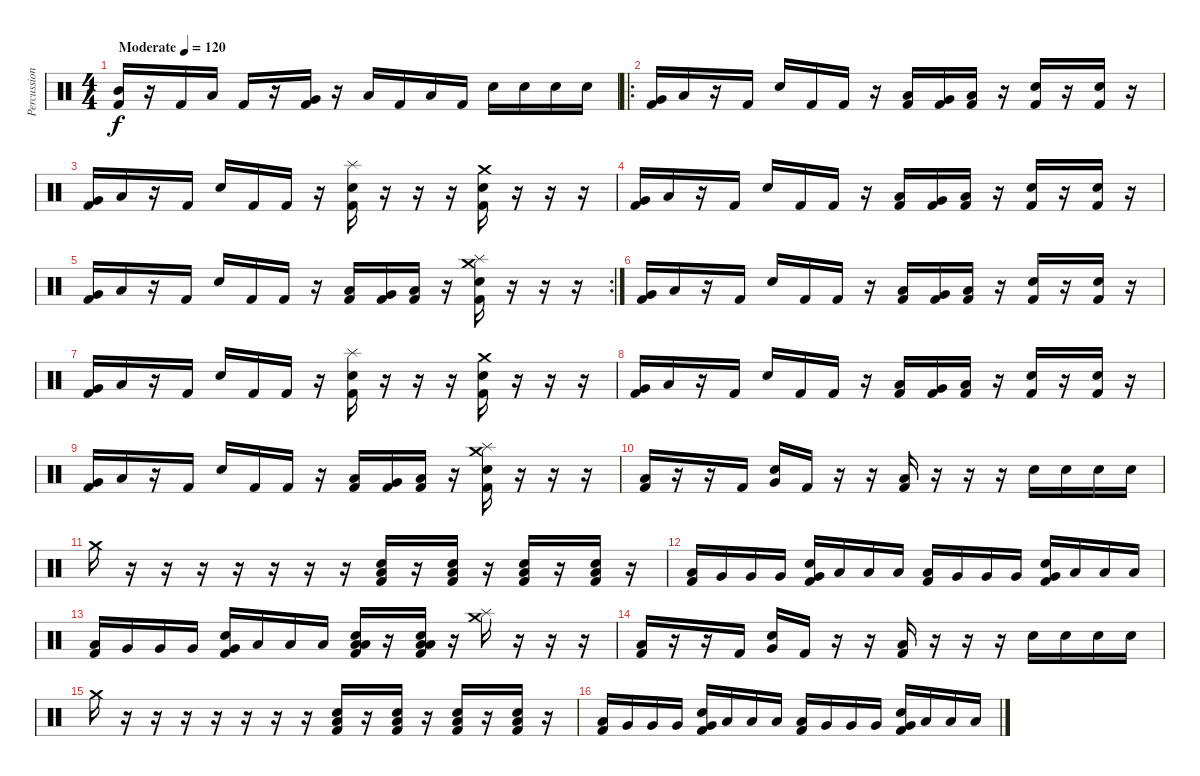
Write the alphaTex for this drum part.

\track ("Percussion" "Percussion") {instrument percussion}
\staff {score}
\articulation defaults
\ts (4 4)
\tempo (120 "Moderate")
\clef neutral
\ks c
("Mid Tom (hit)" "Kick (hit) 2").16{dy f} r.16 "Kick (hit) 2".16 "Low Tom (hit)".16 "Kick (hit) 2".16 r.16 ("Very Low Tom (hit)" "Kick (hit) 2").16 r.16 "Low Tom (hit)".16 "Kick (hit) 2".16 "Low Floor Tom (hit)".16 "Kick (hit) 2".16 "Snare (hit) 2".16 "Snare (hit) 2".16 "Snare (hit) 2".16 "Snare (hit) 2".16 |
\ro
("Very Low Tom (hit)" "Kick (hit) 2").16 "Low Floor Tom (hit)".16 r.16 "Kick (hit) 2".16 "Snare (hit) 2".16 "Kick (hit) 2".16 "Kick (hit) 2".16 r.16 ("Low Tom (hit)" "Kick (hit) 2").16 ("Very Low Tom (hit)" "Kick (hit) 2").16 ("Low Floor Tom (hit)" "Kick (hit) 2").16 r.16 ("Snare (hit) 2" "Kick (hit) 2").16 r.16 ("Snare (hit) 2" "Kick (hit) 2").16 r.16 |
("Very Low Tom (hit)" "Kick (hit) 2").16 "Low Floor Tom (hit)".16 r.16 "Kick (hit) 2".16 "Snare (hit) 2".16 "Kick (hit) 2".16 "Kick (hit) 2".16 r.16 ("Splash (hit)" "Snare (hit) 2" "Kick (hit) 2").16 r.16 r.16 r.16 ("Crash medium (hit)" "Snare (hit) 2" "Kick (hit) 2").16 r.16 r.16 r.16 |
("Very Low Tom (hit)" "Kick (hit) 2").16 "Low Floor Tom (hit)".16 r.16 "Kick (hit) 2".16 "Snare (hit) 2".16 "Kick (hit) 2".16 "Kick (hit) 2".16 r.16 ("Low Tom (hit)" "Kick (hit) 2").16 ("Very Low Tom (hit)" "Kick (hit) 2").16 ("Low Floor Tom (hit)" "Kick (hit) 2").16 r.16 ("Snare (hit) 2" "Kick (hit) 2").16 r.16 ("Snare (hit) 2" "Kick (hit) 2").16 r.16 |
\rc 2
("Very Low Tom (hit)" "Kick (hit) 2").16 "Low Floor Tom (hit)".16 r.16 "Kick (hit) 2".16 "Snare (hit) 2".16 "Kick (hit) 2".16 "Kick (hit) 2".16 r.16 ("Low Tom (hit)" "Kick (hit) 2").16 ("Very Low Tom (hit)" "Kick (hit) 2").16 ("Low Floor Tom (hit)" "Kick (hit) 2").16 r.16 ("Crash medium (hit)" "Splash (hit)" "Snare (hit) 2" "Kick (hit) 2").16 r.16 r.16 r.16 |
("Very Low Tom (hit)" "Kick (hit) 2").16 "Low Floor Tom (hit)".16 r.16 "Kick (hit) 2".16 "Snare (hit) 2".16 "Kick (hit) 2".16 "Kick (hit) 2".16 r.16 ("Low Tom (hit)" "Kick (hit) 2").16 ("Very Low Tom (hit)" "Kick (hit) 2").16 ("Low Floor Tom (hit)" "Kick (hit) 2").16 r.16 ("Snare (hit) 2" "Kick (hit) 2").16 r.16 ("Snare (hit) 2" "Kick (hit) 2").16 r.16 |
("Very Low Tom (hit)" "Kick (hit) 2").16 "Low Floor Tom (hit)".16 r.16 "Kick (hit) 2".16 "Snare (hit) 2".16 "Kick (hit) 2".16 "Kick (hit) 2".16 r.16 ("Splash (hit)" "Snare (hit) 2" "Kick (hit) 2").16 r.16 r.16 r.16 ("Crash medium (hit)" "Snare (hit) 2" "Kick (hit) 2").16 r.16 r.16 r.16 |
("Very Low Tom (hit)" "Kick (hit) 2").16 "Low Floor Tom (hit)".16 r.16 "Kick (hit) 2".16 "Snare (hit) 2".16 "Kick (hit) 2".16 "Kick (hit) 2".16 r.16 ("Low Tom (hit)" "Kick (hit) 2").16 ("Very Low Tom (hit)" "Kick (hit) 2").16 ("Low Floor Tom (hit)" "Kick (hit) 2").16 r.16 ("Snare (hit) 2" "Kick (hit) 2").16 r.16 ("Snare (hit) 2" "Kick (hit) 2").16 r.16 |
("Very Low Tom (hit)" "Kick (hit) 2").16 "Low Floor Tom (hit)".16 r.16 "Kick (hit) 2".16 "Snare (hit) 2".16 "Kick (hit) 2".16 "Kick (hit) 2".16 r.16 ("Low Tom (hit)" "Kick (hit) 2").16 ("Very Low Tom (hit)" "Kick (hit) 2").16 ("Low Floor Tom (hit)" "Kick (hit) 2").16 r.16 ("Crash medium (hit)" "Splash (hit)" "Snare (hit) 2" "Kick (hit) 2").16 r.16 r.16 r.16 |
("Low Tom (hit)" "Kick (hit) 2").16 r.16 r.16 "Kick (hit) 2".16 ("Snare (hit) 2" "Very Low Tom (hit)").16 "Kick (hit) 2".16 r.16 r.16 ("Low Tom (hit)" "Kick (hit) 2").16 r.16 r.16 r.16 "Snare (hit) 2".16 "Snare (hit) 2".16 "Snare (hit) 2".16 "Snare (hit) 2".16 |
"Crash medium (hit)".16 r.16 r.16 r.16 r.16 r.16 r.16 r.16 ("Snare (hit) 2" "Low Tom (hit)" "Kick (hit) 2").16 r.16 ("Snare (hit) 2" "Low Tom (hit)" "Kick (hit) 2").16 r.16 ("Snare (hit) 2" "Low Tom (hit)" "Kick (hit) 2").16 r.16 ("Snare (hit) 2" "Low Tom (hit)" "Kick (hit) 2").16 r.16 |
("Low Tom (hit)" "Kick (hit) 2").16 "Very Low Tom (hit)".16 "Very Low Tom (hit)".16 "Very Low Tom (hit)".16 ("Snare (hit) 2" "Very Low Tom (hit)" "Kick (hit) 2").16 "Low Floor Tom (hit)".16 "Low Floor Tom (hit)".16 "Low Floor Tom (hit)".16 ("Low Tom (hit)" "Kick (hit) 2").16 "Very Low Tom (hit)".16 "Very Low Tom (hit)".16 "Very Low Tom (hit)".16 ("Snare (hit) 2" "Very Low Tom (hit)" "Kick (hit) 2").16 "Low Floor Tom (hit)".16 "Low Floor Tom (hit)".16 "Low Floor Tom (hit)".16 |
("Low Tom (hit)" "Kick (hit) 2").16 "Very Low Tom (hit)".16 "Very Low Tom (hit)".16 "Very Low Tom (hit)".16 ("Snare (hit) 2" "Very Low Tom (hit)" "Kick (hit) 2").16 "Low Floor Tom (hit)".16 "Low Floor Tom (hit)".16 "Low Floor Tom (hit)".16 ("Low Tom (hit)" "Low Tom (hit)" "Snare (hit) 2" "Kick (hit) 2").16 r.16 ("Low Tom (hit)" "Low Tom (hit)" "Snare (hit) 2" "Kick (hit) 2").16 r.16 ("Splash (hit)" "Crash medium (hit)").16 r.16 r.16 r.16 |
("Low Tom (hit)" "Kick (hit) 2").16 r.16 r.16 "Kick (hit) 2".16 ("Snare (hit) 2" "Very Low Tom (hit)").16 "Kick (hit) 2".16 r.16 r.16 ("Low Tom (hit)" "Kick (hit) 2").16 r.16 r.16 r.16 "Snare (hit) 2".16 "Snare (hit) 2".16 "Snare (hit) 2".16 "Snare (hit) 2".16 |
"Crash medium (hit)".16 r.16 r.16 r.16 r.16 r.16 r.16 r.16 ("Snare (hit) 2" "Low Tom (hit)" "Kick (hit) 2").16 r.16 ("Snare (hit) 2" "Low Tom (hit)" "Kick (hit) 2").16 r.16 ("Snare (hit) 2" "Low Tom (hit)" "Kick (hit) 2").16 r.16 ("Snare (hit) 2" "Low Tom (hit)" "Kick (hit) 2").16 r.16 |
("Low Tom (hit)" "Kick (hit) 2").16 "Very Low Tom (hit)".16 "Very Low Tom (hit)".16 "Very Low Tom (hit)".16 ("Snare (hit) 2" "Very Low Tom (hit)" "Kick (hit) 2").16 "Low Floor Tom (hit)".16 "Low Floor Tom (hit)".16 "Low Floor Tom (hit)".16 ("Low Tom (hit)" "Kick (hit) 2").16 "Very Low Tom (hit)".16 "Very Low Tom (hit)".16 "Very Low Tom (hit)".16 ("Snare (hit) 2" "Very Low Tom (hit)" "Kick (hit) 2").16 "Low Floor Tom (hit)".16 "Low Floor Tom (hit)".16 "Low Floor Tom (hit)".16
